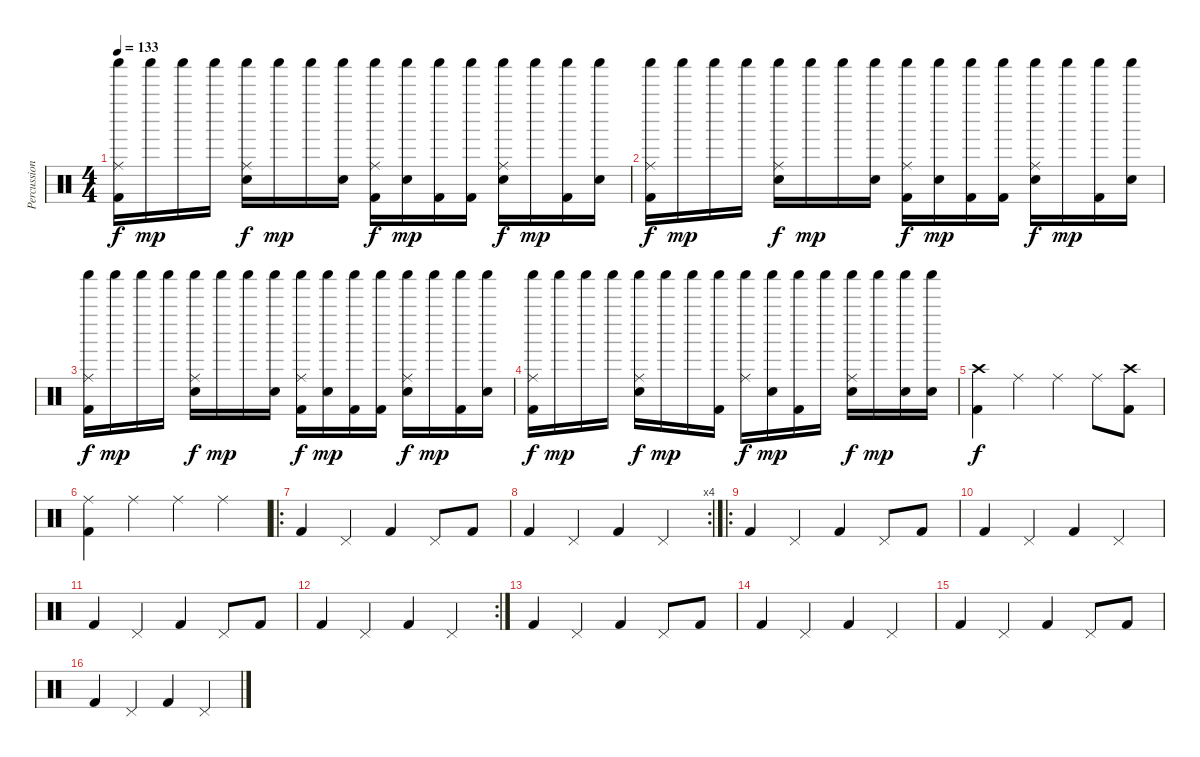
\track ("Percussion" "Percussion") {instrument percussion}
\staff {score}
\articulation defaults
\ts (4 4)
\tempo 133
\clef neutral
\ks c
("Ride (middle)" "Kick (hit) 2" "Shaker (hit)").16{dy f} "Shaker (hit)".16{dy mp} "Shaker (hit)".16 "Shaker (hit)".16 ("Ride (middle)" "Electric Snare (hit)" "Shaker (hit)").16{dy f} "Shaker (hit)".16{dy mp} "Shaker (hit)".16 ("Electric Snare (hit)" "Shaker (hit)").16 ("Ride (middle)" "Kick (hit) 2" "Shaker (hit)").16{dy f} ("Electric Snare (hit)" "Shaker (hit)").16{dy mp} ("Kick (hit) 2" "Shaker (hit)").16 ("Kick (hit) 2" "Shaker (hit)").16 ("Ride (middle)" "Electric Snare (hit)" "Shaker (hit)").16{dy f} "Shaker (hit)".16{dy mp} ("Kick (hit) 2" "Shaker (hit)").16 ("Electric Snare (hit)" "Shaker (hit)").16 |
("Ride (middle)" "Kick (hit) 2" "Shaker (hit)").16{dy f} "Shaker (hit)".16{dy mp} "Shaker (hit)".16 "Shaker (hit)".16 ("Ride (middle)" "Electric Snare (hit)" "Shaker (hit)").16{dy f} "Shaker (hit)".16{dy mp} "Shaker (hit)".16 ("Electric Snare (hit)" "Shaker (hit)").16 ("Ride (middle)" "Kick (hit) 2" "Shaker (hit)").16{dy f} ("Electric Snare (hit)" "Shaker (hit)").16{dy mp} ("Kick (hit) 2" "Shaker (hit)").16 ("Kick (hit) 2" "Shaker (hit)").16 ("Ride (middle)" "Electric Snare (hit)" "Shaker (hit)").16{dy f} "Shaker (hit)".16{dy mp} ("Kick (hit) 2" "Shaker (hit)").16 ("Electric Snare (hit)" "Shaker (hit)").16 |
("Ride (middle)" "Kick (hit) 2" "Shaker (hit)").16{dy f} "Shaker (hit)".16{dy mp} "Shaker (hit)".16 "Shaker (hit)".16 ("Ride (middle)" "Electric Snare (hit)" "Shaker (hit)").16{dy f} "Shaker (hit)".16{dy mp} "Shaker (hit)".16 ("Electric Snare (hit)" "Shaker (hit)").16 ("Ride (middle)" "Kick (hit) 2" "Shaker (hit)").16{dy f} ("Electric Snare (hit)" "Shaker (hit)").16{dy mp} ("Kick (hit) 2" "Shaker (hit)").16 ("Kick (hit) 2" "Shaker (hit)").16 ("Ride (middle)" "Electric Snare (hit)" "Shaker (hit)").16{dy f} "Shaker (hit)".16{dy mp} ("Kick (hit) 2" "Shaker (hit)").16 ("Electric Snare (hit)" "Shaker (hit)").16 |
("Ride (middle)" "Kick (hit) 2" "Shaker (hit)").16{dy f} "Shaker (hit)".16{dy mp} "Shaker (hit)".16 "Shaker (hit)".16 ("Ride (middle)" "Electric Snare (hit)" "Shaker (hit)").16{dy f} "Shaker (hit)".16{dy mp} "Shaker (hit)".16 ("Kick (hit) 2" "Shaker (hit)").16 ("Ride (middle)" "Shaker (hit)").16{dy f} ("Electric Snare (hit)" "Shaker (hit)").16{dy mp} ("Kick (hit) 2" "Shaker (hit)").16 "Shaker (hit)".16 ("Ride (middle)" "Electric Snare (hit)" "Shaker (hit)").16{dy f} "Shaker (hit)".16{dy mp} ("Electric Snare (hit)" "Shaker (hit)").16 ("Electric Snare (hit)" "Shaker (hit)").16 |
("Crash high (hit)" "Kick (hit) 2").4{dy f} "Ride (middle)".4 "Ride (middle)".4 "Ride (middle)".8 ("Crash high (hit)" "Kick (hit) 2").8 |
("Ride (middle)" "Kick (hit) 2").4 "Ride (middle)".4 "Ride (middle)".4 "Ride (middle)".4 |
\ro "Kick (hit) 2".4 "Pedal Hi-Hat (hit)".4 "Kick (hit) 2".4 "Pedal Hi-Hat (hit)".8 "Kick (hit) 2".8
|
\rc 4 "Kick (hit) 2".4 "Pedal Hi-Hat (hit)".4 "Kick (hit) 2".4 "Pedal Hi-Hat (hit)".4
|
\ro "Kick (hit) 2".4 "Pedal Hi-Hat (hit)".4 "Kick (hit) 2".4 "Pedal Hi-Hat (hit)".8 "Kick (hit) 2".8
|
"Kick (hit) 2".4 "Pedal Hi-Hat (hit)".4 "Kick (hit) 2".4 "Pedal Hi-Hat (hit)".4 |
"Kick (hit) 2".4 "Pedal Hi-Hat (hit)".4 "Kick (hit) 2".4 "Pedal Hi-Hat (hit)".8 "Kick (hit) 2".8 |
\rc 2 "Kick (hit) 2".4 "Pedal Hi-Hat (hit)".4 "Kick (hit) 2".4 "Pedal Hi-Hat (hit)".4
|
"Kick (hit) 2".4 "Pedal Hi-Hat (hit)".4 "Kick (hit) 2".4 "Pedal Hi-Hat (hit)".8 "Kick (hit) 2".8 |
"Kick (hit) 2".4 "Pedal Hi-Hat (hit)".4 "Kick (hit) 2".4 "Pedal Hi-Hat (hit)".4 |
"Kick (hit) 2".4 "Pedal Hi-Hat (hit)".4 "Kick (hit) 2".4 "Pedal Hi-Hat (hit)".8 "Kick (hit) 2".8 |
"Kick (hit) 2".4 "Pedal Hi-Hat (hit)".4 "Kick (hit) 2".4 "Pedal Hi-Hat (hit)".4
